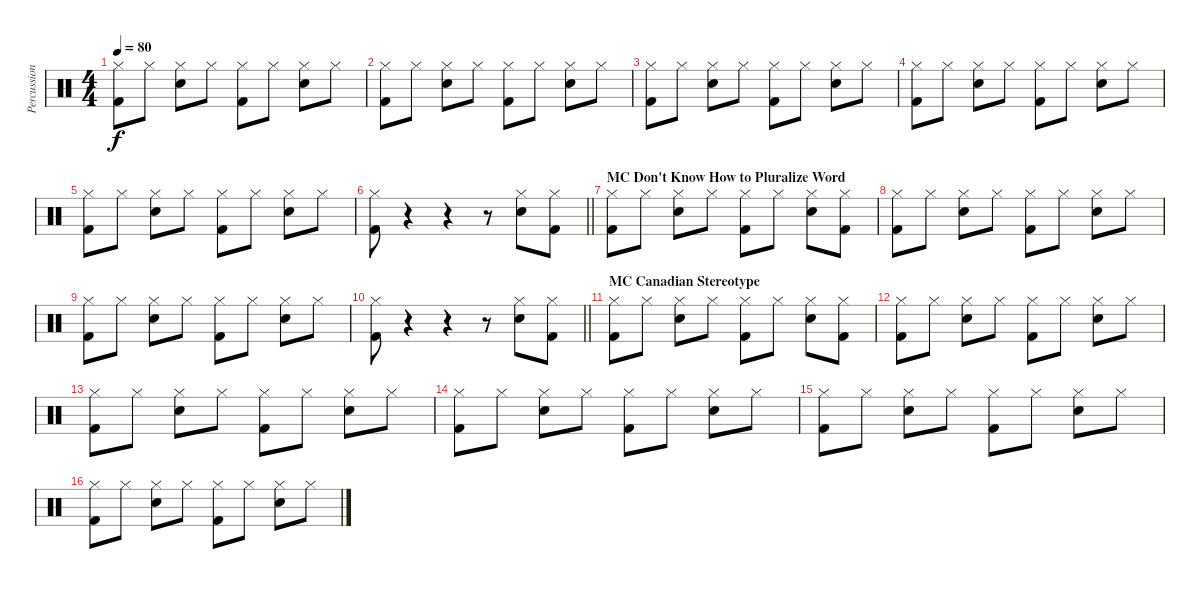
\track ("Percussion" "Percussion") {instrument percussion}
\staff {score}
\articulation defaults
\ts (4 4)
\tempo 80
\clef neutral
\ks c
("Hi-Hat (closed)" "Kick (hit) 2").8{dy f} "Hi-Hat (closed)".8 ("Hi-Hat (closed)" "Snare (hit) 2").8 "Hi-Hat (closed)".8 ("Hi-Hat (closed)" "Kick (hit) 2").8 "Hi-Hat (closed)".8 ("Hi-Hat (closed)" "Snare (hit) 2").8 "Hi-Hat (closed)".8 |
("Hi-Hat (closed)" "Kick (hit) 2").8 "Hi-Hat (closed)".8 ("Hi-Hat (closed)" "Snare (hit) 2").8 "Hi-Hat (closed)".8 ("Hi-Hat (closed)" "Kick (hit) 2").8 "Hi-Hat (closed)".8 ("Hi-Hat (closed)" "Snare (hit) 2").8 "Hi-Hat (closed)".8 |
("Hi-Hat (closed)" "Kick (hit) 2").8 "Hi-Hat (closed)".8 ("Hi-Hat (closed)" "Snare (hit) 2").8 "Hi-Hat (closed)".8 ("Hi-Hat (closed)" "Kick (hit) 2").8 "Hi-Hat (closed)".8 ("Hi-Hat (closed)" "Snare (hit) 2").8 "Hi-Hat (closed)".8 |
("Hi-Hat (closed)" "Kick (hit) 2").8 "Hi-Hat (closed)".8 ("Hi-Hat (closed)" "Snare (hit) 2").8 "Hi-Hat (closed)".8 ("Hi-Hat (closed)" "Kick (hit) 2").8 "Hi-Hat (closed)".8 ("Hi-Hat (closed)" "Snare (hit) 2").8 "Hi-Hat (closed)".8 |
("Hi-Hat (closed)" "Kick (hit) 2").8 "Hi-Hat (closed)".8 ("Hi-Hat (closed)" "Snare (hit) 2").8 "Hi-Hat (closed)".8 ("Hi-Hat (closed)" "Kick (hit) 2").8 "Hi-Hat (closed)".8 ("Hi-Hat (closed)" "Snare (hit) 2").8 "Hi-Hat (closed)".8 |
\barLineRight lightlight
("Hi-Hat (closed)" "Kick (hit) 2").8 r.4 r.4 r.8 ("Hi-Hat (closed)" "Snare (hit) 2").8 ("Hi-Hat (closed)" "Kick (hit) 2").8 |
\section ("" "MC Don't Know How to Pluralize Word")
("Hi-Hat (closed)" "Kick (hit) 2").8 "Hi-Hat (closed)".8 ("Hi-Hat (closed)" "Snare (hit) 2").8 "Hi-Hat (closed)".8 ("Hi-Hat (closed)" "Kick (hit) 2").8 "Hi-Hat (closed)".8 ("Hi-Hat (closed)" "Snare (hit) 2").8 ("Hi-Hat (closed)" "Kick (hit) 2").8 |
("Hi-Hat (closed)" "Kick (hit) 2").8 "Hi-Hat (closed)".8 ("Hi-Hat (closed)" "Snare (hit) 2").8 "Hi-Hat (closed)".8 ("Hi-Hat (closed)" "Kick (hit) 2").8 "Hi-Hat (closed)".8 ("Hi-Hat (closed)" "Snare (hit) 2").8 "Hi-Hat (closed)".8 |
("Hi-Hat (closed)" "Kick (hit) 2").8 "Hi-Hat (closed)".8 ("Hi-Hat (closed)" "Snare (hit) 2").8 "Hi-Hat (closed)".8 ("Hi-Hat (closed)" "Kick (hit) 2").8 "Hi-Hat (closed)".8 ("Hi-Hat (closed)" "Snare (hit) 2").8 "Hi-Hat (closed)".8 |
\barLineRight lightlight
("Hi-Hat (closed)" "Kick (hit) 2").8 r.4 r.4 r.8 ("Hi-Hat (closed)" "Snare (hit) 2").8 ("Hi-Hat (closed)" "Kick (hit) 2").8 |
\section ("" "MC Canadian Stereotype")
("Hi-Hat (closed)" "Kick (hit) 2").8 "Hi-Hat (closed)".8 ("Hi-Hat (closed)" "Snare (hit) 2").8 "Hi-Hat (closed)".8 ("Hi-Hat (closed)" "Kick (hit) 2").8 "Hi-Hat (closed)".8 ("Hi-Hat (closed)" "Snare (hit) 2").8 ("Hi-Hat (closed)" "Kick (hit) 2").8 |
("Hi-Hat (closed)" "Kick (hit) 2").8 "Hi-Hat (closed)".8 ("Hi-Hat (closed)" "Snare (hit) 2").8 "Hi-Hat (closed)".8 ("Hi-Hat (closed)" "Kick (hit) 2").8 "Hi-Hat (closed)".8 ("Hi-Hat (closed)" "Snare (hit) 2").8 "Hi-Hat (closed)".8 |
("Hi-Hat (closed)" "Kick (hit) 2").8 "Hi-Hat (closed)".8 ("Hi-Hat (closed)" "Snare (hit) 2").8 "Hi-Hat (closed)".8 ("Hi-Hat (closed)" "Kick (hit) 2").8 "Hi-Hat (closed)".8 ("Hi-Hat (closed)" "Snare (hit) 2").8 "Hi-Hat (closed)".8 |
("Hi-Hat (closed)" "Kick (hit) 2").8 "Hi-Hat (closed)".8 ("Hi-Hat (closed)" "Snare (hit) 2").8 "Hi-Hat (closed)".8 ("Hi-Hat (closed)" "Kick (hit) 2").8 "Hi-Hat (closed)".8 ("Hi-Hat (closed)" "Snare (hit) 2").8 "Hi-Hat (closed)".8 |
("Hi-Hat (closed)" "Kick (hit) 2").8 "Hi-Hat (closed)".8 ("Hi-Hat (closed)" "Snare (hit) 2").8 "Hi-Hat (closed)".8 ("Hi-Hat (closed)" "Kick (hit) 2").8 "Hi-Hat (closed)".8 ("Hi-Hat (closed)" "Snare (hit) 2").8 "Hi-Hat (closed)".8 |
("Hi-Hat (closed)" "Kick (hit) 2").8 "Hi-Hat (closed)".8 ("Hi-Hat (closed)" "Snare (hit) 2").8 "Hi-Hat (closed)".8 ("Hi-Hat (closed)" "Kick (hit) 2").8 "Hi-Hat (closed)".8 ("Hi-Hat (closed)" "Snare (hit) 2").8 "Hi-Hat (closed)".8
